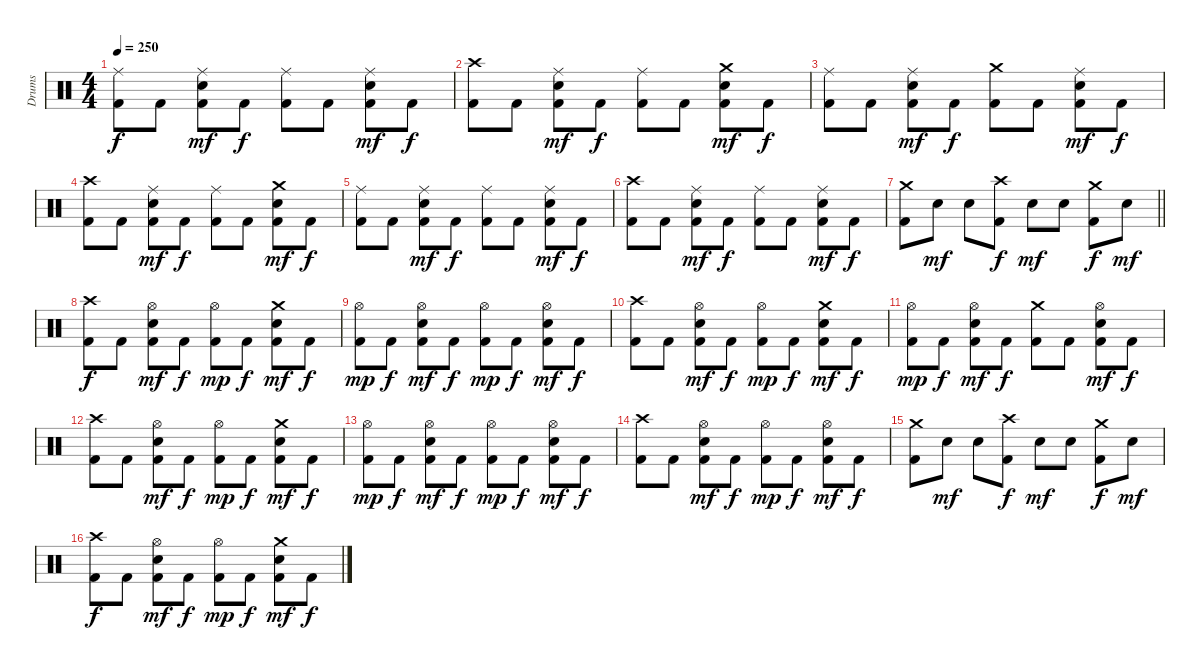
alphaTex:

\track ("Drums" "Drums") {instrument percussion}
\staff {score}
\articulation defaults
\ts (4 4)
\tempo 250
\clef neutral
\ks c
("Ride (middle)" "Kick (hit) 2").8{dy f} "Kick (hit) 2".8 ("Ride (middle)" "Electric Snare (hit)" "Kick (hit) 2").8{dy mf} "Kick (hit) 2".8{dy f} ("Ride (middle)" "Kick (hit) 2").8 "Kick (hit) 2".8 ("Ride (middle)" "Electric Snare (hit)" "Kick (hit) 2").8{dy mf} "Kick (hit) 2".8{dy f} |
("Crash high (hit)" "Kick (hit) 2").8 "Kick (hit) 2".8 ("Ride (middle)" "Electric Snare (hit)" "Kick (hit) 2").8{dy mf} "Kick (hit) 2".8{dy f} ("Ride (middle)" "Kick (hit) 2").8 "Kick (hit) 2".8 ("Crash medium (hit)" "Electric Snare (hit)" "Kick (hit) 2").8{dy mf} "Kick (hit) 2".8{dy f} |
("Ride (middle)" "Kick (hit) 2").8 "Kick (hit) 2".8 ("Ride (middle)" "Electric Snare (hit)" "Kick (hit) 2").8{dy mf} "Kick (hit) 2".8{dy f} ("Crash medium (hit)" "Kick (hit) 2").8 "Kick (hit) 2".8 ("Ride (middle)" "Electric Snare (hit)" "Kick (hit) 2").8{dy mf} "Kick (hit) 2".8{dy f} |
("Crash high (hit)" "Kick (hit) 2").8 "Kick (hit) 2".8 ("Ride (middle)" "Electric Snare (hit)" "Kick (hit) 2").8{dy mf} "Kick (hit) 2".8{dy f} ("Ride (middle)" "Kick (hit) 2").8 "Kick (hit) 2".8 ("Crash medium (hit)" "Electric Snare (hit)" "Kick (hit) 2").8{dy mf} "Kick (hit) 2".8{dy f} |
("Ride (middle)" "Kick (hit) 2").8 "Kick (hit) 2".8 ("Ride (middle)" "Electric Snare (hit)" "Kick (hit) 2").8{dy mf} "Kick (hit) 2".8{dy f} ("Ride (middle)" "Kick (hit) 2").8 "Kick (hit) 2".8 ("Ride (middle)" "Electric Snare (hit)" "Kick (hit) 2").8{dy mf} "Kick (hit) 2".8{dy f} |
("Crash high (hit)" "Kick (hit) 2").8 "Kick (hit) 2".8 ("Ride (middle)" "Electric Snare (hit)" "Kick (hit) 2").8{dy mf} "Kick (hit) 2".8{dy f} ("Ride (middle)" "Kick (hit) 2").8 "Kick (hit) 2".8 ("Ride (middle)" "Electric Snare (hit)" "Kick (hit) 2").8{dy mf} "Kick (hit) 2".8{dy f} |
\barLineRight lightlight
("Crash medium (hit)" "Kick (hit) 2").8 "Electric Snare (hit)".8{dy mf} "Electric Snare (hit)".8 ("Crash high (hit)" "Kick (hit) 2").8{dy f} "Electric Snare (hit)".8{dy mf} "Electric Snare (hit)".8 ("Crash medium (hit)" "Kick (hit) 2").8{dy f} "Electric Snare (hit)".8{dy mf} |
\section ("" "")
("Crash high (hit)" "Kick (hit) 2").8{dy f} "Kick (hit) 2".8 ("Hi-Hat (open)" "Electric Snare (hit)" "Kick (hit) 2").8{dy mf} "Kick (hit) 2".8{dy f} ("Hi-Hat (open)" "Kick (hit) 2").8{dy mp} "Kick (hit) 2".8{dy f} ("Crash medium (hit)" "Electric Snare (hit)" "Kick (hit) 2").8{dy mf} "Kick (hit) 2".8{dy f} |
("Hi-Hat (open)" "Kick (hit) 2").8{dy mp} "Kick (hit) 2".8{dy f} ("Hi-Hat (open)" "Electric Snare (hit)" "Kick (hit) 2").8{dy mf} "Kick (hit) 2".8{dy f} ("Hi-Hat (open)" "Kick (hit) 2").8{dy mp} "Kick (hit) 2".8{dy f} ("Hi-Hat (open)" "Electric Snare (hit)" "Kick (hit) 2").8{dy mf} "Kick (hit) 2".8{dy f} |
("Crash high (hit)" "Kick (hit) 2").8 "Kick (hit) 2".8 ("Hi-Hat (open)" "Electric Snare (hit)" "Kick (hit) 2").8{dy mf} "Kick (hit) 2".8{dy f} ("Hi-Hat (open)" "Kick (hit) 2").8{dy mp} "Kick (hit) 2".8{dy f} ("Crash medium (hit)" "Electric Snare (hit)" "Kick (hit) 2").8{dy mf} "Kick (hit) 2".8{dy f} |
("Hi-Hat (open)" "Kick (hit) 2").8{dy mp} "Kick (hit) 2".8{dy f} ("Hi-Hat (open)" "Electric Snare (hit)" "Kick (hit) 2").8{dy mf} "Kick (hit) 2".8{dy f} ("Crash medium (hit)" "Kick (hit) 2").8 "Kick (hit) 2".8 ("Hi-Hat (open)" "Electric Snare (hit)" "Kick (hit) 2").8{dy mf} "Kick (hit) 2".8{dy f} |
("Crash high (hit)" "Kick (hit) 2").8 "Kick (hit) 2".8 ("Hi-Hat (open)" "Electric Snare (hit)" "Kick (hit) 2").8{dy mf} "Kick (hit) 2".8{dy f} ("Hi-Hat (open)" "Kick (hit) 2").8{dy mp} "Kick (hit) 2".8{dy f} ("Crash medium (hit)" "Electric Snare (hit)" "Kick (hit) 2").8{dy mf} "Kick (hit) 2".8{dy f} |
("Hi-Hat (open)" "Kick (hit) 2").8{dy mp} "Kick (hit) 2".8{dy f} ("Hi-Hat (open)" "Electric Snare (hit)" "Kick (hit) 2").8{dy mf} "Kick (hit) 2".8{dy f} ("Hi-Hat (open)" "Kick (hit) 2").8{dy mp} "Kick (hit) 2".8{dy f} ("Hi-Hat (open)" "Electric Snare (hit)" "Kick (hit) 2").8{dy mf} "Kick (hit) 2".8{dy f} |
("Crash high (hit)" "Kick (hit) 2").8 "Kick (hit) 2".8 ("Hi-Hat (open)" "Electric Snare (hit)" "Kick (hit) 2").8{dy mf} "Kick (hit) 2".8{dy f} ("Hi-Hat (open)" "Kick (hit) 2").8{dy mp} "Kick (hit) 2".8{dy f} ("Hi-Hat (open)" "Electric Snare (hit)" "Kick (hit) 2").8{dy mf} "Kick (hit) 2".8{dy f} |
("Crash medium (hit)" "Kick (hit) 2").8 "Electric Snare (hit)".8{dy mf} "Electric Snare (hit)".8 ("Crash high (hit)" "Kick (hit) 2").8{dy f} "Electric Snare (hit)".8{dy mf} "Electric Snare (hit)".8 ("Crash medium (hit)" "Kick (hit) 2").8{dy f} "Electric Snare (hit)".8{dy mf} |
("Crash high (hit)" "Kick (hit) 2").8{dy f} "Kick (hit) 2".8 ("Hi-Hat (open)" "Electric Snare (hit)" "Kick (hit) 2").8{dy mf} "Kick (hit) 2".8{dy f} ("Hi-Hat (open)" "Kick (hit) 2").8{dy mp} "Kick (hit) 2".8{dy f} ("Crash medium (hit)" "Electric Snare (hit)" "Kick (hit) 2").8{dy mf} "Kick (hit) 2".8{dy f}
